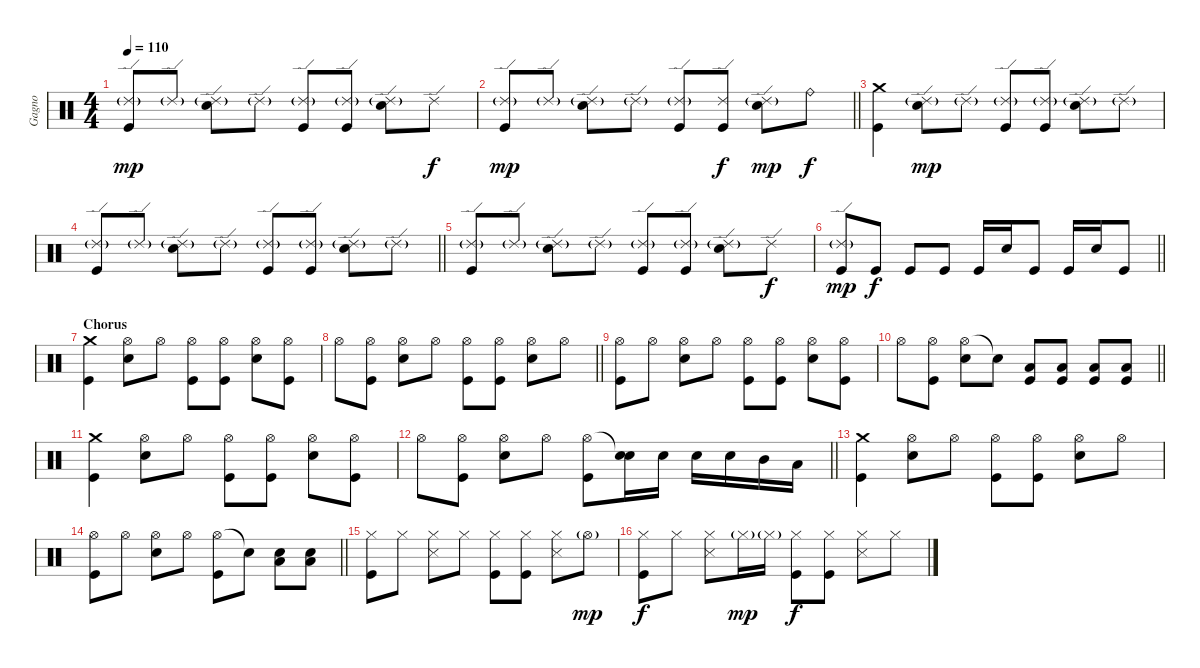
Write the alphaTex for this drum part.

\track ("Gagno" "Gagno") {instrument percussion}
\staff {score}
\articulation defaults
\ts (4 4)
\tempo 110
\clef neutral
\ks c
("Ride (edge) 2"{g} "Kick (hit)").8{dy mp} "Ride (edge) 2"{g}.8 ("Ride (edge) 2"{g} "Snare (hit) 2").8 "Ride (edge) 2"{g}.8 ("Ride (edge) 2"{g} "Kick (hit)").8 ("Ride (edge) 2"{g} "Kick (hit)").8 ("Ride (edge) 2"{g} "Snare (hit) 2").8 "Ride (edge) 2".8{dy f} |
\barLineRight lightlight
("Ride (edge) 2"{g} "Kick (hit)").8{dy mp} "Ride (edge) 2"{g}.8 ("Ride (edge) 2"{g} "Snare (hit) 2").8 "Ride (edge) 2"{g}.8 ("Ride (edge) 2"{g} "Kick (hit)").8 ("Ride (edge) 2" "Kick (hit)").8{dy f} ("Ride (edge) 2"{g} "Snare (hit) 2").8{dy mp} "Ride (bell)".8{dy f} |
("Crash medium (hit)" "Kick (hit)").4 ("Ride (edge) 2"{g} "Snare (hit) 2").8{dy mp} "Ride (edge) 2"{g}.8 ("Ride (edge) 2"{g} "Kick (hit)").8 ("Ride (edge) 2"{g} "Kick (hit)").8 ("Ride (edge) 2"{g} "Snare (hit) 2").8 "Ride (edge) 2"{g}.8 |
\barLineRight lightlight
("Ride (edge) 2"{g} "Kick (hit)").8 "Ride (edge) 2"{g}.8 ("Ride (edge) 2"{g} "Snare (hit) 2").8 "Ride (edge) 2"{g}.8 ("Ride (edge) 2"{g} "Kick (hit)").8 ("Ride (edge) 2"{g} "Kick (hit)").8 ("Ride (edge) 2"{g} "Snare (hit) 2").8 "Ride (edge) 2"{g}.8 |
("Ride (edge) 2"{g} "Kick (hit)").8 "Ride (edge) 2"{g}.8 ("Ride (edge) 2"{g} "Snare (hit) 2").8 "Ride (edge) 2"{g}.8 ("Ride (edge) 2"{g} "Kick (hit)").8 ("Ride (edge) 2"{g} "Kick (hit)").8 ("Ride (edge) 2"{g} "Snare (hit) 2").8 "Ride (edge) 2".8{dy f} |
\barLineRight lightlight
("Ride (edge) 2"{g} "Kick (hit)").8{dy mp} "Kick (hit)".8{dy f} "Kick (hit)".8 "Kick (hit)".8 "Kick (hit)".16 "Snare (hit) 2".16 "Kick (hit)".8 "Kick (hit)".16 "Snare (hit) 2".16 "Kick (hit)".8 |
\section ("" "Chorus")
("Crash medium (hit)" "Kick (hit)").4 ("Hi-Hat (open)" "Snare (hit) 2").8 "Hi-Hat (open)".8 ("Hi-Hat (open)" "Kick (hit)").8 ("Hi-Hat (open)" "Kick (hit)").8 ("Hi-Hat (open)" "Snare (hit) 2").8 ("Hi-Hat (open)" "Kick (hit)").8 |
\barLineRight lightlight "Hi-Hat (open)".8
("Hi-Hat (open)" "Kick (hit)").8 ("Hi-Hat (open)" "Snare (hit) 2").8 "Hi-Hat (open)".8 ("Hi-Hat (open)" "Kick (hit)").8 ("Hi-Hat (open)" "Kick (hit)").8 ("Hi-Hat (open)" "Snare (hit) 2").8 "Hi-Hat (open)".8 |
("Hi-Hat (open)" "Kick (hit)").8 "Hi-Hat (open)".8 ("Hi-Hat (open)" "Snare (hit) 2").8 "Hi-Hat (open)".8 ("Hi-Hat (open)" "Kick (hit)").8 ("Hi-Hat (open)" "Kick (hit)").8 ("Hi-Hat (open)" "Snare (hit) 2").8 ("Hi-Hat (open)" "Kick (hit)").8 |
\barLineRight lightlight "Hi-Hat (open)".8
("Hi-Hat (open)" "Kick (hit)").8 ("Hi-Hat (open)" "Snare (hit) 2").8 "Snare (hit)"{t}.8 ("Low Floor Tom (hit)" "Kick (hit)").8 ("Low Floor Tom (hit)" "Kick (hit)").8 ("Low Floor Tom (hit)" "Kick (hit)").8 ("Low Floor Tom (hit)" "Kick (hit)").8 |
("Crash medium (hit)" "Kick (hit)").4 ("Hi-Hat (open)" "Snare (hit) 2").8 "Hi-Hat (open)".8 ("Hi-Hat (open)" "Kick (hit)").8 ("Hi-Hat (open)" "Kick (hit)").8 ("Hi-Hat (open)" "Snare (hit) 2").8 ("Hi-Hat (open)" "Kick (hit)").8 |
\barLineRight lightlight "Hi-Hat (open)".8
("Hi-Hat (open)" "Kick (hit)").8 ("Hi-Hat (open)" "Snare (hit) 2").8 "Hi-Hat (open)".8 ("Hi-Hat (open)" "Kick (hit)").8 ("Snare (hit)"{t} "Snare (hit) 2").16 "Snare (hit) 2".16 "Snare (hit) 2".16 "Snare (hit) 2".16 "Mid Tom (hit)".16 "Low Tom (hit)".16 |
("Crash medium (hit)" "Kick (hit)").4 ("Hi-Hat (open)" "Snare (hit) 2").8 "Hi-Hat (open)".8 ("Hi-Hat (open)" "Kick (hit)").8 ("Hi-Hat (open)" "Kick (hit)").8 ("Hi-Hat (open)" "Snare (hit) 2").8 "Hi-Hat (open)".8 |
\barLineRight lightlight
("Hi-Hat (open)" "Kick (hit)").8 "Hi-Hat (open)".8 ("Hi-Hat (open)" "Snare (hit) 2").8 "Hi-Hat (open)".8 ("Hi-Hat (open)" "Kick (hit)").8 "Snare (hit)"{t}.8 ("Snare (hit) 2" "Low Floor Tom (hit)").8 ("Snare (hit) 2" "Low Floor Tom (hit)").8 |
("Hi-Hat (closed)" "Kick (hit)").8 "Hi-Hat (closed)".8 ("Hi-Hat (closed)" "Snare (side stick) 3").8 "Hi-Hat (closed)".8 ("Hi-Hat (closed)" "Kick (hit)").8 ("Hi-Hat (closed)" "Kick (hit)").8 ("Hi-Hat (closed)" "Snare (side stick) 3").8 "Hi-Hat (open)"{g}.8{dy mp} |
("Hi-Hat (closed)" "Kick (hit)").8{dy f} "Hi-Hat (closed)".8 ("Hi-Hat (closed)" "Snare (side stick) 3").8 "Hi-Hat (closed)"{g}.16{dy mp} "Hi-Hat (closed)"{g}.16 ("Hi-Hat (closed)" "Kick (hit)").8{dy f} ("Hi-Hat (closed)" "Kick (hit)").8 ("Hi-Hat (closed)" "Snare (side stick) 3").8 "Hi-Hat (closed)".8
